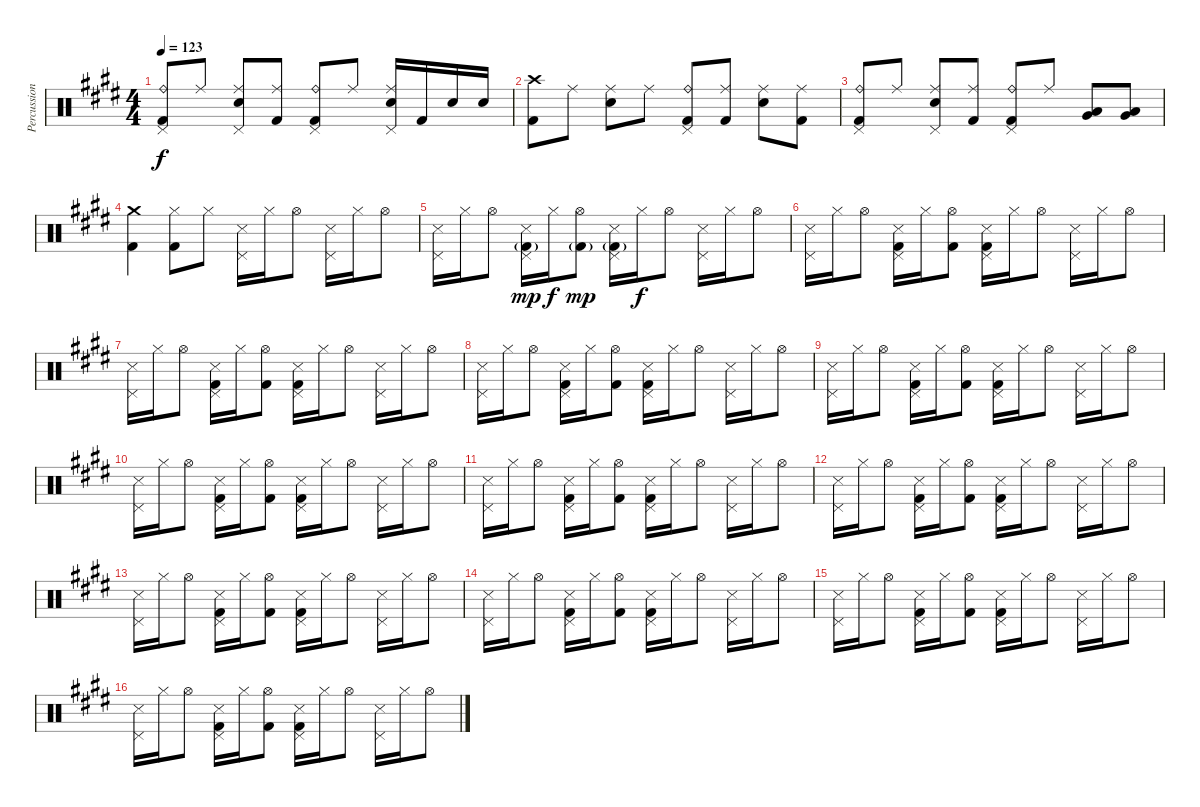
\track ("Percussioni" "Percussion") {instrument percussion}
\staff {score}
\articulation defaults
\ts (4 4)
\tempo 123
\clef neutral
\ks e
("Pedal Hi-Hat (hit)" "Ride (bell)" "Kick (hit) 2").8{dy f} "Ride (middle)".8 ("Pedal Hi-Hat (hit)" "Ride (middle)" "Electric Snare (hit)").8 ("Ride (middle)" "Kick (hit) 2").8 ("Pedal Hi-Hat (hit)" "Ride (bell)" "Kick (hit) 2").8 "Ride (middle)".8 ("Pedal Hi-Hat (hit)" "Ride (middle)" "Electric Snare (hit)").16 "Kick (hit) 2".16 "Electric Snare (hit)".16 "Electric Snare (hit)".16 |
("Crash high (hit)" "Kick (hit) 2").8 "Ride (middle)".8 ("Ride (middle)" "Electric Snare (hit)").8 "Ride (middle)".8 ("Ride (bell)" "Pedal Hi-Hat (hit)" "Kick (hit) 2").8 ("Ride (middle)" "Kick (hit) 2").8 ("Ride (middle)" "Electric Snare (hit)").8 ("Ride (middle)" "Kick (hit) 2").8 |
("Ride (bell)" "Pedal Hi-Hat (hit)" "Kick (hit) 2").8 "Ride (middle)".8 ("Pedal Hi-Hat (hit)" "Ride (middle)" "Electric Snare (hit)").8 ("Ride (middle)" "Kick (hit) 2").8 ("Pedal Hi-Hat (hit)" "Ride (bell)" "Kick (hit) 2").8 "Ride (middle)".8 ("Low Tom (hit)" "Very Low Tom (hit)").8 ("Very Low Tom (hit)" "Low Floor Tom (hit)").8 |
("Crash medium (hit)" "Kick (hit) 2").4 ("Hi-Hat (closed)" "Kick (hit) 2").8 "Hi-Hat (closed)".8 ("Pedal Hi-Hat (hit)" "Metronome (hit)").16 "Hi-Hat (closed)".16 "Hi-Hat (open)".8 ("Pedal Hi-Hat (hit)" "Metronome (hit)").16 "Hi-Hat (closed)".16 "Hi-Hat (open)".8 |
("Pedal Hi-Hat (hit)" "Metronome (hit)").16 "Hi-Hat (closed)".16 "Hi-Hat (open)".8 ("Pedal Hi-Hat (hit)" "Metronome (hit)" "Kick (hit) 2"{g}).16{dy mp} "Hi-Hat (closed)".16{dy f} ("Hi-Hat (open)" "Kick (hit) 2"{g}).8{dy mp} ("Pedal Hi-Hat (hit)" "Metronome (hit)" "Kick (hit) 2"{g}).16 "Hi-Hat (closed)".16{dy f} "Hi-Hat (open)".8 ("Pedal Hi-Hat (hit)" "Metronome (hit)").16 "Hi-Hat (closed)".16 "Hi-Hat (open)".8 |
("Pedal Hi-Hat (hit)" "Metronome (hit)").16 "Hi-Hat (closed)".16 "Hi-Hat (open)".8 ("Pedal Hi-Hat (hit)" "Metronome (hit)" "Kick (hit) 2").16 "Hi-Hat (closed)".16 ("Hi-Hat (open)" "Kick (hit) 2").8 ("Pedal Hi-Hat (hit)" "Metronome (hit)" "Kick (hit) 2").16 "Hi-Hat (closed)".16 "Hi-Hat (open)".8 ("Pedal Hi-Hat (hit)" "Metronome (hit)").16 "Hi-Hat (closed)".16 "Hi-Hat (open)".8 |
("Pedal Hi-Hat (hit)" "Metronome (hit)").16 "Hi-Hat (closed)".16 "Hi-Hat (open)".8 ("Pedal Hi-Hat (hit)" "Metronome (hit)" "Kick (hit) 2").16 "Hi-Hat (closed)".16 ("Hi-Hat (open)" "Kick (hit) 2").8 ("Pedal Hi-Hat (hit)" "Metronome (hit)" "Kick (hit) 2").16 "Hi-Hat (closed)".16 "Hi-Hat (open)".8 ("Pedal Hi-Hat (hit)" "Metronome (hit)").16 "Hi-Hat (closed)".16 "Hi-Hat (open)".8 |
("Pedal Hi-Hat (hit)" "Metronome (hit)").16 "Hi-Hat (closed)".16 "Hi-Hat (open)".8 ("Pedal Hi-Hat (hit)" "Metronome (hit)" "Kick (hit) 2").16 "Hi-Hat (closed)".16 ("Hi-Hat (open)" "Kick (hit) 2").8 ("Pedal Hi-Hat (hit)" "Metronome (hit)" "Kick (hit) 2").16 "Hi-Hat (closed)".16 "Hi-Hat (open)".8 ("Pedal Hi-Hat (hit)" "Metronome (hit)").16 "Hi-Hat (closed)".16 "Hi-Hat (open)".8 |
("Pedal Hi-Hat (hit)" "Metronome (hit)").16 "Hi-Hat (closed)".16 "Hi-Hat (open)".8 ("Pedal Hi-Hat (hit)" "Metronome (hit)" "Kick (hit) 2").16 "Hi-Hat (closed)".16 ("Hi-Hat (open)" "Kick (hit) 2").8 ("Pedal Hi-Hat (hit)" "Metronome (hit)" "Kick (hit) 2").16 "Hi-Hat (closed)".16 "Hi-Hat (open)".8 ("Pedal Hi-Hat (hit)" "Metronome (hit)").16 "Hi-Hat (closed)".16 "Hi-Hat (open)".8 |
("Pedal Hi-Hat (hit)" "Metronome (hit)").16 "Hi-Hat (closed)".16 "Hi-Hat (open)".8 ("Pedal Hi-Hat (hit)" "Metronome (hit)" "Kick (hit) 2").16 "Hi-Hat (closed)".16 ("Hi-Hat (open)" "Kick (hit) 2").8 ("Pedal Hi-Hat (hit)" "Metronome (hit)" "Kick (hit) 2").16 "Hi-Hat (closed)".16 "Hi-Hat (open)".8 ("Pedal Hi-Hat (hit)" "Metronome (hit)").16 "Hi-Hat (closed)".16 "Hi-Hat (open)".8 |
("Pedal Hi-Hat (hit)" "Metronome (hit)").16 "Hi-Hat (closed)".16 "Hi-Hat (open)".8 ("Pedal Hi-Hat (hit)" "Metronome (hit)" "Kick (hit) 2").16 "Hi-Hat (closed)".16 ("Hi-Hat (open)" "Kick (hit) 2").8 ("Pedal Hi-Hat (hit)" "Metronome (hit)" "Kick (hit) 2").16 "Hi-Hat (closed)".16 "Hi-Hat (open)".8 ("Pedal Hi-Hat (hit)" "Metronome (hit)").16 "Hi-Hat (closed)".16 "Hi-Hat (open)".8 |
("Pedal Hi-Hat (hit)" "Metronome (hit)").16 "Hi-Hat (closed)".16 "Hi-Hat (open)".8 ("Pedal Hi-Hat (hit)" "Metronome (hit)" "Kick (hit) 2").16 "Hi-Hat (closed)".16 ("Hi-Hat (open)" "Kick (hit) 2").8 ("Pedal Hi-Hat (hit)" "Metronome (hit)" "Kick (hit) 2").16 "Hi-Hat (closed)".16 "Hi-Hat (open)".8 ("Pedal Hi-Hat (hit)" "Metronome (hit)").16 "Hi-Hat (closed)".16 "Hi-Hat (open)".8 |
("Pedal Hi-Hat (hit)" "Metronome (hit)").16 "Hi-Hat (closed)".16 "Hi-Hat (open)".8 ("Pedal Hi-Hat (hit)" "Metronome (hit)" "Kick (hit) 2").16 "Hi-Hat (closed)".16 ("Hi-Hat (open)" "Kick (hit) 2").8 ("Pedal Hi-Hat (hit)" "Metronome (hit)" "Kick (hit) 2").16 "Hi-Hat (closed)".16 "Hi-Hat (open)".8 ("Pedal Hi-Hat (hit)" "Metronome (hit)").16 "Hi-Hat (closed)".16 "Hi-Hat (open)".8 |
("Pedal Hi-Hat (hit)" "Metronome (hit)").16 "Hi-Hat (closed)".16 "Hi-Hat (open)".8 ("Pedal Hi-Hat (hit)" "Metronome (hit)" "Kick (hit) 2").16 "Hi-Hat (closed)".16 ("Hi-Hat (open)" "Kick (hit) 2").8 ("Pedal Hi-Hat (hit)" "Metronome (hit)" "Kick (hit) 2").16 "Hi-Hat (closed)".16 "Hi-Hat (open)".8 ("Pedal Hi-Hat (hit)" "Metronome (hit)").16 "Hi-Hat (closed)".16 "Hi-Hat (open)".8 |
("Pedal Hi-Hat (hit)" "Metronome (hit)").16 "Hi-Hat (closed)".16 "Hi-Hat (open)".8 ("Pedal Hi-Hat (hit)" "Metronome (hit)" "Kick (hit) 2").16 "Hi-Hat (closed)".16 ("Hi-Hat (open)" "Kick (hit) 2").8 ("Pedal Hi-Hat (hit)" "Metronome (hit)" "Kick (hit) 2").16 "Hi-Hat (closed)".16 "Hi-Hat (open)".8 ("Pedal Hi-Hat (hit)" "Metronome (hit)").16 "Hi-Hat (closed)".16 "Hi-Hat (open)".8 |
("Pedal Hi-Hat (hit)" "Metronome (hit)").16 "Hi-Hat (closed)".16 "Hi-Hat (open)".8 ("Pedal Hi-Hat (hit)" "Metronome (hit)" "Kick (hit) 2").16 "Hi-Hat (closed)".16 ("Hi-Hat (open)" "Kick (hit) 2").8 ("Pedal Hi-Hat (hit)" "Metronome (hit)" "Kick (hit) 2").16 "Hi-Hat (closed)".16 "Hi-Hat (open)".8 ("Pedal Hi-Hat (hit)" "Metronome (hit)").16 "Hi-Hat (closed)".16 "Hi-Hat (open)".8
